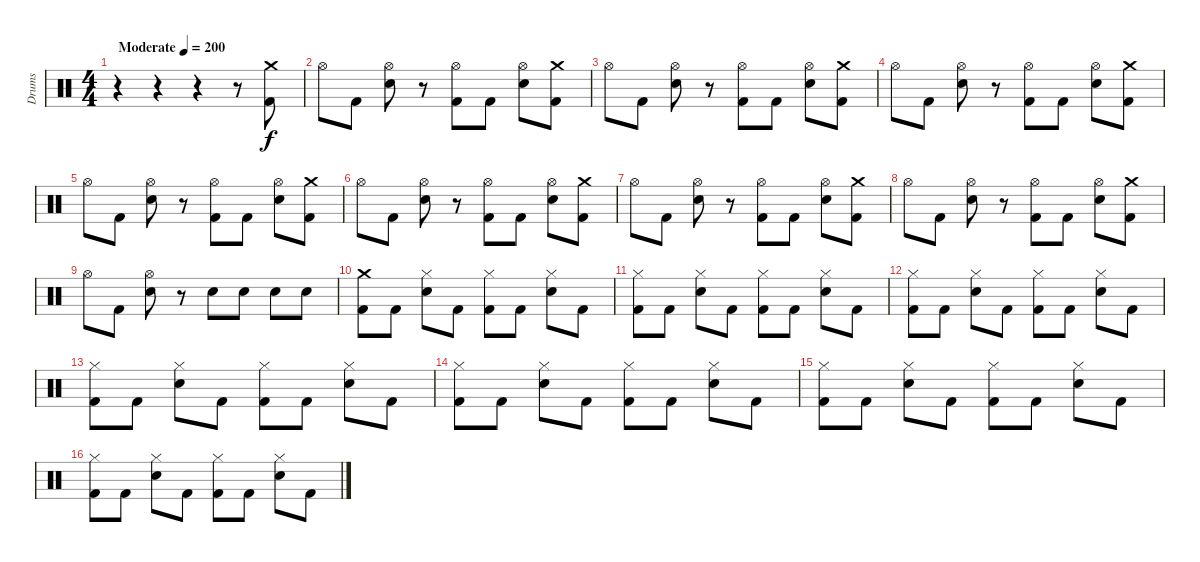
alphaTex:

\track ("Drums" "Drums") {instrument percussion}
\staff {score}
\articulation defaults
\ts (4 4)
\tempo (200 "Moderate")
\clef neutral
\ks c
r.4{dy f} r.4 r.4 r.8 ("Crash medium (hit)" "Kick (hit) 2").8 |
"Hi-Hat (open)".8 "Kick (hit) 2".8 ("Hi-Hat (open)" "Electric Snare (hit)").8 r.8 ("Hi-Hat (open)" "Kick (hit) 2").8 "Kick (hit) 2".8 ("Hi-Hat (open)" "Electric Snare (hit)").8 ("Crash medium (hit)" "Kick (hit) 2").8 |
"Hi-Hat (open)".8 "Kick (hit) 2".8 ("Hi-Hat (open)" "Electric Snare (hit)").8 r.8 ("Hi-Hat (open)" "Kick (hit) 2").8 "Kick (hit) 2".8 ("Hi-Hat (open)" "Electric Snare (hit)").8 ("Crash medium (hit)" "Kick (hit) 2").8 |
"Hi-Hat (open)".8 "Kick (hit) 2".8 ("Hi-Hat (open)" "Electric Snare (hit)").8 r.8 ("Hi-Hat (open)" "Kick (hit) 2").8 "Kick (hit) 2".8 ("Hi-Hat (open)" "Electric Snare (hit)").8 ("Crash medium (hit)" "Kick (hit) 2").8 |
"Hi-Hat (open)".8 "Kick (hit) 2".8 ("Hi-Hat (open)" "Electric Snare (hit)").8 r.8 ("Hi-Hat (open)" "Kick (hit) 2").8 "Kick (hit) 2".8 ("Hi-Hat (open)" "Electric Snare (hit)").8 ("Crash medium (hit)" "Kick (hit) 2").8 |
"Hi-Hat (open)".8 "Kick (hit) 2".8 ("Hi-Hat (open)" "Electric Snare (hit)").8 r.8 ("Hi-Hat (open)" "Kick (hit) 2").8 "Kick (hit) 2".8 ("Hi-Hat (open)" "Electric Snare (hit)").8 ("Crash medium (hit)" "Kick (hit) 2").8 |
"Hi-Hat (open)".8 "Kick (hit) 2".8 ("Hi-Hat (open)" "Electric Snare (hit)").8 r.8 ("Hi-Hat (open)" "Kick (hit) 2").8 "Kick (hit) 2".8 ("Hi-Hat (open)" "Electric Snare (hit)").8 ("Crash medium (hit)" "Kick (hit) 2").8 |
"Hi-Hat (open)".8 "Kick (hit) 2".8 ("Hi-Hat (open)" "Electric Snare (hit)").8 r.8 ("Hi-Hat (open)" "Kick (hit) 2").8 "Kick (hit) 2".8 ("Hi-Hat (open)" "Electric Snare (hit)").8 ("Crash medium (hit)" "Kick (hit) 2").8 |
"Hi-Hat (open)".8 "Kick (hit) 2".8 ("Hi-Hat (open)" "Electric Snare (hit)").8 r.8 "Electric Snare (hit)".8 "Electric Snare (hit)".8 "Electric Snare (hit)".8 "Electric Snare (hit)".8 |
("Crash medium (hit)" "Kick (hit) 2").8 "Kick (hit) 2".8 ("Hi-Hat (closed)" "Electric Snare (hit)").8 "Kick (hit) 2".8 ("Hi-Hat (closed)" "Kick (hit) 2").8 "Kick (hit) 2".8 ("Hi-Hat (closed)" "Electric Snare (hit)").8 "Kick (hit) 2".8 |
("Hi-Hat (closed)" "Kick (hit) 2").8 "Kick (hit) 2".8 ("Hi-Hat (closed)" "Electric Snare (hit)").8 "Kick (hit) 2".8 ("Hi-Hat (closed)" "Kick (hit) 2").8 "Kick (hit) 2".8 ("Hi-Hat (closed)" "Electric Snare (hit)").8 "Kick (hit) 2".8 |
("Hi-Hat (closed)" "Kick (hit) 2").8 "Kick (hit) 2".8 ("Hi-Hat (closed)" "Electric Snare (hit)").8 "Kick (hit) 2".8 ("Hi-Hat (closed)" "Kick (hit) 2").8 "Kick (hit) 2".8 ("Hi-Hat (closed)" "Electric Snare (hit)").8 "Kick (hit) 2".8 |
("Hi-Hat (closed)" "Kick (hit) 2").8 "Kick (hit) 2".8 ("Hi-Hat (closed)" "Electric Snare (hit)").8 "Kick (hit) 2".8 ("Hi-Hat (closed)" "Kick (hit) 2").8 "Kick (hit) 2".8 ("Hi-Hat (closed)" "Electric Snare (hit)").8 "Kick (hit) 2".8 |
("Hi-Hat (closed)" "Kick (hit) 2").8 "Kick (hit) 2".8 ("Hi-Hat (closed)" "Electric Snare (hit)").8 "Kick (hit) 2".8 ("Hi-Hat (closed)" "Kick (hit) 2").8 "Kick (hit) 2".8 ("Hi-Hat (closed)" "Electric Snare (hit)").8 "Kick (hit) 2".8 |
("Hi-Hat (closed)" "Kick (hit) 2").8 "Kick (hit) 2".8 ("Hi-Hat (closed)" "Electric Snare (hit)").8 "Kick (hit) 2".8 ("Hi-Hat (closed)" "Kick (hit) 2").8 "Kick (hit) 2".8 ("Hi-Hat (closed)" "Electric Snare (hit)").8 "Kick (hit) 2".8 |
("Hi-Hat (closed)" "Kick (hit) 2").8 "Kick (hit) 2".8 ("Hi-Hat (closed)" "Electric Snare (hit)").8 "Kick (hit) 2".8 ("Hi-Hat (closed)" "Kick (hit) 2").8 "Kick (hit) 2".8 ("Hi-Hat (closed)" "Electric Snare (hit)").8 "Kick (hit) 2".8
